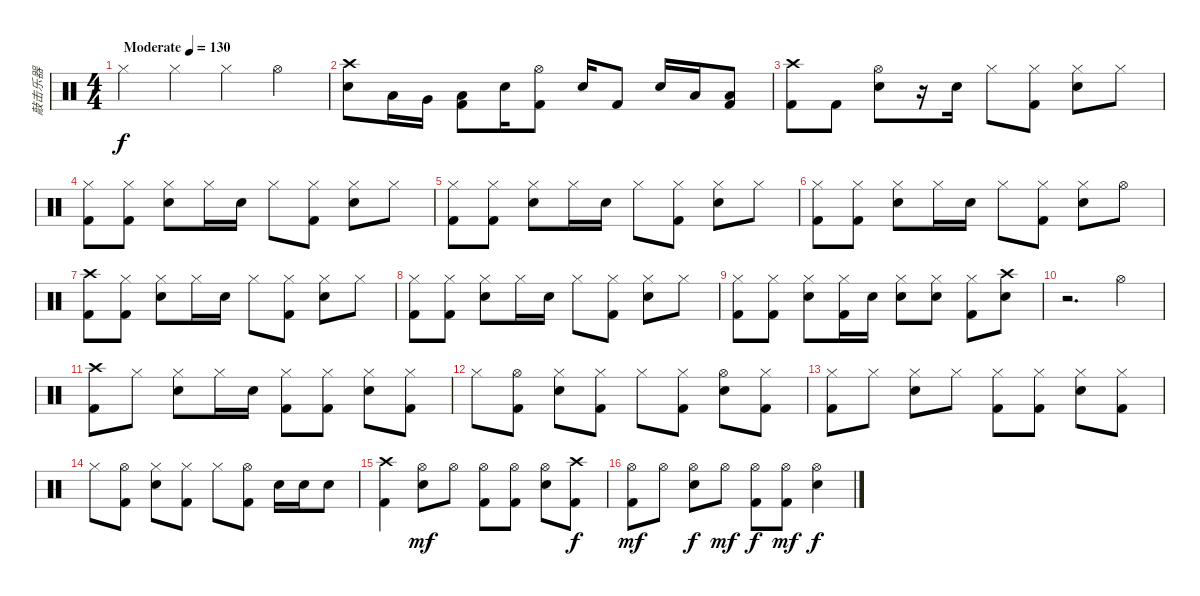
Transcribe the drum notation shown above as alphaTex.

\track ("敲击乐器" "敲击乐器") {instrument percussion}
\staff {score}
\articulation defaults
\ts (4 4)
\tempo (130 "Moderate")
\clef neutral
\ks c "Hi-Hat (closed)".4{dy f} "Hi-Hat (closed)".4 "Hi-Hat (closed)".4 "Hi-Hat (open)".4
|
("Crash high (hit)" "Snare (hit) 2").8 "Low Tom (hit)".16 "Very Low Tom (hit)".16 ("Low Floor Tom (hit)" "Kick (hit) 2").8 "Snare (hit) 2".16 ("Hi-Hat (open)" "Kick (hit) 2").8 "Snare (hit) 2".16 "Kick (hit) 2".8 "Snare (hit) 2".16 "Low Tom (hit)".16 ("Low Floor Tom (hit)" "Kick (hit) 2").8 |
("Crash high (hit)" "Kick (hit) 2").8 "Kick (hit) 2".8 ("Hi-Hat (open)" "Snare (hit) 2").8 r.16 "Snare (hit) 2".16 "Hi-Hat (closed)".8 ("Hi-Hat (closed)" "Kick (hit) 2").8 ("Hi-Hat (closed)" "Snare (hit) 2").8 "Hi-Hat (closed)".8 |
("Hi-Hat (closed)" "Kick (hit) 2").8 ("Hi-Hat (closed)" "Kick (hit) 2").8 ("Hi-Hat (closed)" "Snare (hit) 2").8 "Hi-Hat (closed)".16 "Snare (hit) 2".16 "Hi-Hat (closed)".8 ("Hi-Hat (closed)" "Kick (hit) 2").8 ("Hi-Hat (closed)" "Snare (hit) 2").8 "Hi-Hat (closed)".8 |
("Hi-Hat (closed)" "Kick (hit) 2").8 ("Hi-Hat (closed)" "Kick (hit) 2").8 ("Hi-Hat (closed)" "Snare (hit) 2").8 "Hi-Hat (closed)".16 "Snare (hit) 2".16 "Hi-Hat (closed)".8 ("Hi-Hat (closed)" "Kick (hit) 2").8 ("Hi-Hat (closed)" "Snare (hit) 2").8 "Hi-Hat (closed)".8 |
("Hi-Hat (closed)" "Kick (hit) 2").8 ("Hi-Hat (closed)" "Kick (hit) 2").8 ("Hi-Hat (closed)" "Snare (hit) 2").8 "Hi-Hat (closed)".16 "Snare (hit) 2".16 "Hi-Hat (closed)".8 ("Hi-Hat (closed)" "Kick (hit) 2").8 ("Hi-Hat (closed)" "Snare (hit) 2").8 "Hi-Hat (open)".8 |
("Crash high (hit)" "Kick (hit) 2").8 ("Hi-Hat (closed)" "Kick (hit) 2").8 ("Hi-Hat (closed)" "Snare (hit) 2").8 "Hi-Hat (closed)".16 "Snare (hit) 2".16 "Hi-Hat (closed)".8 ("Hi-Hat (closed)" "Kick (hit) 2").8 ("Hi-Hat (closed)" "Snare (hit) 2").8 "Hi-Hat (closed)".8 |
("Hi-Hat (closed)" "Kick (hit) 2").8 ("Hi-Hat (closed)" "Kick (hit) 2").8 ("Hi-Hat (closed)" "Snare (hit) 2").8 "Hi-Hat (closed)".16 "Snare (hit) 2".16 "Hi-Hat (closed)".8 ("Hi-Hat (closed)" "Kick (hit) 2").8 ("Hi-Hat (closed)" "Snare (hit) 2").8 "Hi-Hat (closed)".8 |
("Hi-Hat (closed)" "Kick (hit) 2").8 ("Hi-Hat (closed)" "Kick (hit) 2").8 ("Hi-Hat (closed)" "Snare (hit) 2").8 ("Hi-Hat (closed)" "Kick (hit) 2").16 "Snare (hit) 2".16 ("Hi-Hat (closed)" "Snare (hit) 2").8 ("Hi-Hat (closed)" "Snare (hit) 2").8 ("Hi-Hat (closed)" "Kick (hit) 2").8 ("Crash high (hit)" "Snare (hit) 2").8 |
r.2{d} "Hi-Hat (open)".4 |
("Crash high (hit)" "Kick (hit) 2").8 "Hi-Hat (closed)".8 ("Hi-Hat (closed)" "Snare (hit) 2").8 "Hi-Hat (closed)".16 "Snare (hit) 2".16 ("Hi-Hat (closed)" "Kick (hit) 2").8 ("Hi-Hat (closed)" "Kick (hit) 2").8 ("Hi-Hat (closed)" "Snare (hit) 2").8 ("Hi-Hat (closed)" "Kick (hit) 2").8 |
"Hi-Hat (closed)".8 ("Hi-Hat (open)" "Kick (hit) 2").8 ("Hi-Hat (closed)" "Snare (hit) 2").8 ("Hi-Hat (closed)" "Kick (hit) 2").8 "Hi-Hat (closed)".8 ("Hi-Hat (closed)" "Kick (hit) 2").8 ("Hi-Hat (open)" "Snare (hit) 2").8 ("Hi-Hat (closed)" "Kick (hit) 2").8 |
("Hi-Hat (closed)" "Kick (hit) 2").8 "Hi-Hat (closed)".8 ("Hi-Hat (closed)" "Snare (hit) 2").8 "Hi-Hat (closed)".8 ("Hi-Hat (closed)" "Kick (hit) 2").8 ("Hi-Hat (closed)" "Kick (hit) 2").8 ("Hi-Hat (closed)" "Snare (hit) 2").8 ("Hi-Hat (closed)" "Kick (hit) 2").8 |
"Hi-Hat (closed)".8 ("Hi-Hat (open)" "Kick (hit) 2").8 ("Hi-Hat (closed)" "Snare (hit) 2").8 ("Hi-Hat (closed)" "Kick (hit) 2").8 "Hi-Hat (closed)".8 ("Hi-Hat (open)" "Kick (hit) 2").8 "Snare (hit) 2".16 "Snare (hit) 2".16 "Snare (hit) 2".8 |
("Crash high (hit)" "Kick (hit) 2").4 ("Hi-Hat (open)" "Snare (hit) 2").8{dy mf} "Hi-Hat (open)".8 ("Hi-Hat (open)" "Kick (hit) 2").8 ("Hi-Hat (open)" "Kick (hit) 2").8 ("Hi-Hat (open)" "Snare (hit) 2").8 ("Crash high (hit)" "Kick (hit) 2").8{dy f} |
("Hi-Hat (open)" "Kick (hit) 2").8{dy mf} "Hi-Hat (open)".8 ("Hi-Hat (open)" "Snare (hit) 2").8{dy f} "Hi-Hat (open)".8{dy mf} ("Hi-Hat (open)" "Kick (hit) 2").8{dy f} ("Hi-Hat (open)" "Kick (hit) 2").8{dy mf} ("Hi-Hat (open)" "Snare (hit) 2").4{dy f}
